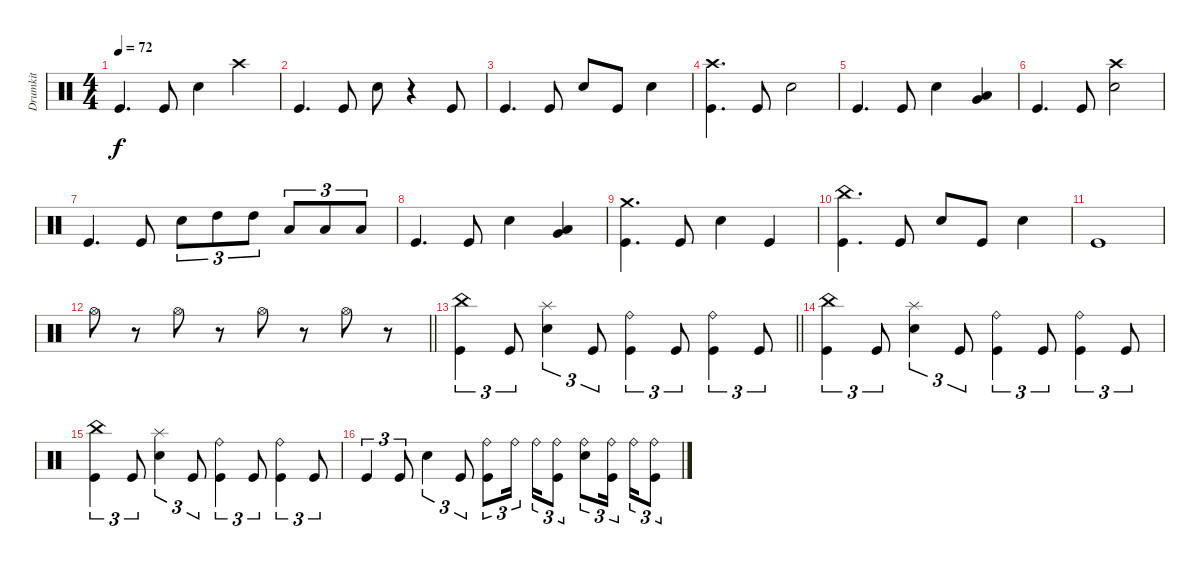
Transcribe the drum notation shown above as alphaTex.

\track ("Drumkit" "Drumkit") {instrument percussion}
\staff {score}
\articulation defaults
\ts (4 4)
\tempo 72
\clef neutral
\ks c "Kick (hit)".4{d dy f} "Kick (hit)".8 "Snare (hit) 2".4 "Crash high (hit)".4
|
"Kick (hit)".4{d} "Kick (hit)".8 "Snare (hit) 2".8 r.4 "Kick (hit)".8 |
"Kick (hit)".4{d} "Kick (hit)".8 "Snare (hit) 2".8 "Kick (hit)".8 "Snare (hit) 2".4 |
("Kick (hit)" "Crash high (hit)").4{d} "Kick (hit)".8 "Snare (hit) 2".2 |
"Kick (hit)".4{d} "Kick (hit)".8 "Snare (hit) 2".4 ("Very Low Tom (hit)" "Low Floor Tom (hit)").4 |
"Kick (hit)".4{d} "Kick (hit)".8 ("Snare (hit) 2" "Crash high (hit)").2 |
"Kick (hit)".4{d} "Kick (hit)".8 "Snare (hit) 2".8{tu (3 2)} "High Tom (hit)".8{tu (3 2)} "High Tom (hit)".8{tu (3 2)} "Low Tom (hit)".8{tu (3 2)} "Low Tom (hit)".8{tu (3 2)} "Low Floor Tom (hit)".8{tu (3 2)} |
"Kick (hit)".4{d} "Kick (hit)".8 "Snare (hit) 2".4 ("Low Floor Tom (hit)" "Very Low Tom (hit)").4 |
("Kick (hit)" "Crash medium (hit)").4{d} "Kick (hit)".8 "Snare (hit) 2".4 "Kick (hit)".4 |
("Kick (hit)" "China (hit)").4{d} "Kick (hit)".8 "Snare (hit) 2".8 "Kick (hit)".8 "Snare (hit) 2".4 |
"Kick (hit)".1 |
\barLineRight lightlight "Hi-Hat (open)".8
r.8 "Hi-Hat (open)".8 r.8 "Hi-Hat (open)".8 r.8 "Hi-Hat (open)".8 r.8 |
\barLineRight lightlight
("Kick (hit)" "China (hit)").4{tu (3 2)} "Kick (hit)".8{tu (3 2)} ("Snare (hit) 2" "Splash (hit)").4{tu (3 2)} "Kick (hit)".8{tu (3 2)} ("Kick (hit)" "Ride (bell)").4{tu (3 2)} "Kick (hit)".8{tu (3 2)} ("Kick (hit)" "Ride (bell)").4{tu (3 2)} "Kick (hit)".8{tu (3 2)} |
("Kick (hit)" "China (hit)").4{tu (3 2)} "Kick (hit)".8{tu (3 2)} ("Snare (hit) 2" "Splash (hit)").4{tu (3 2)} "Kick (hit)".8{tu (3 2)} ("Kick (hit)" "Ride (bell)").4{tu (3 2)} "Kick (hit)".8{tu (3 2)} ("Kick (hit)" "Ride (bell)").4{tu (3 2)} "Kick (hit)".8{tu (3 2)} |
("Kick (hit)" "China (hit)").4{tu (3 2)} "Kick (hit)".8{tu (3 2)} ("Snare (hit) 2" "Splash (hit)").4{tu (3 2)} "Kick (hit)".8{tu (3 2)} ("Kick (hit)" "Ride (bell)").4{tu (3 2)} "Kick (hit)".8{tu (3 2)} ("Kick (hit)" "Ride (bell)").4{tu (3 2)} "Kick (hit)".8{tu (3 2)} |
"Kick (hit)".4{tu (3 2)} "Kick (hit)".8{tu (3 2)} "Snare (hit) 2".4{tu (3 2)} "Kick (hit)".8{tu (3 2)} ("Kick (hit)" "Ride (bell)").8{tu (3 2)} "Ride (bell)".16{tu (3 2) beam splitsecondary} "Ride (bell)".16{tu (3 2)} ("Kick (hit)" "Ride (bell)").8{tu (3 2)} ("Snare (hit) 2" "Ride (bell)").8{tu (3 2)} ("Kick (hit)" "Ride (bell)").16{tu (3 2) beam splitsecondary} "Ride (bell)".16{tu (3 2)} ("Kick (hit)" "Ride (bell)").8{tu (3 2)}
